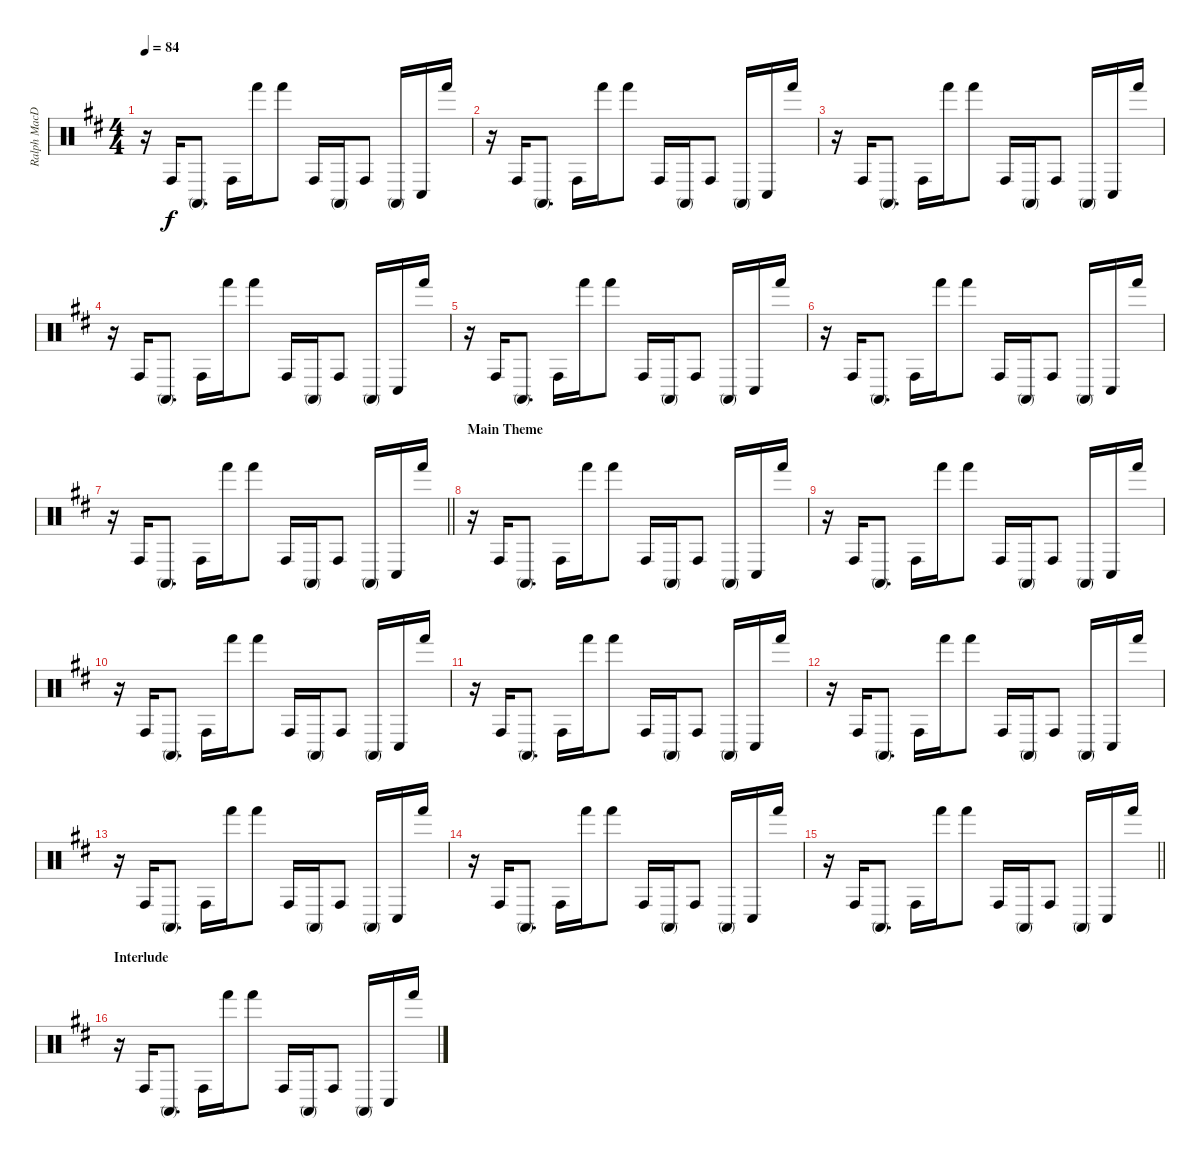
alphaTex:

\track ("Ralph MacDonald" "Ralph MacD") {instrument percussion}
\staff {score}
\articulation defaults
\ts (4 4)
\tempo 84
\clef neutral
\ks d
r.16{dy f} "Conga high (hit)".16 "Conga high (mute)".8{d} "Conga high (hit)".16 "Hand (hit)".16 "Hand (hit)".8 "Conga high (hit)".16 "Conga high (mute)".16 "Conga high (hit)".8 "Conga high (mute)".16 "Conga low (hit)".16 "Hand (hit)".16 |
r.16 "Conga high (hit)".16 "Conga high (mute)".8{d} "Conga high (hit)".16 "Hand (hit)".16 "Hand (hit)".8 "Conga high (hit)".16 "Conga high (mute)".16 "Conga high (hit)".8 "Conga high (mute)".16 "Conga low (hit)".16 "Hand (hit)".16 |
r.16 "Conga high (hit)".16 "Conga high (mute)".8{d} "Conga high (hit)".16 "Hand (hit)".16 "Hand (hit)".8 "Conga high (hit)".16 "Conga high (mute)".16 "Conga high (hit)".8 "Conga high (mute)".16 "Conga low (hit)".16 "Hand (hit)".16 |
r.16 "Conga high (hit)".16 "Conga high (mute)".8{d} "Conga high (hit)".16 "Hand (hit)".16 "Hand (hit)".8 "Conga high (hit)".16 "Conga high (mute)".16 "Conga high (hit)".8 "Conga high (mute)".16 "Conga low (hit)".16 "Hand (hit)".16 |
r.16 "Conga high (hit)".16 "Conga high (mute)".8{d} "Conga high (hit)".16 "Hand (hit)".16 "Hand (hit)".8 "Conga high (hit)".16 "Conga high (mute)".16 "Conga high (hit)".8 "Conga high (mute)".16 "Conga low (hit)".16 "Hand (hit)".16 |
r.16 "Conga high (hit)".16 "Conga high (mute)".8{d} "Conga high (hit)".16 "Hand (hit)".16 "Hand (hit)".8 "Conga high (hit)".16 "Conga high (mute)".16 "Conga high (hit)".8 "Conga high (mute)".16 "Conga low (hit)".16 "Hand (hit)".16 |
\barLineRight lightlight
r.16 "Conga high (hit)".16 "Conga high (mute)".8{d} "Conga high (hit)".16 "Hand (hit)".16 "Hand (hit)".8 "Conga high (hit)".16 "Conga high (mute)".16 "Conga high (hit)".8 "Conga high (mute)".16 "Conga low (hit)".16 "Hand (hit)".16 |
\section ("" "Main Theme")
r.16 "Conga high (hit)".16 "Conga high (mute)".8{d} "Conga high (hit)".16 "Hand (hit)".16 "Hand (hit)".8 "Conga high (hit)".16 "Conga high (mute)".16 "Conga high (hit)".8 "Conga high (mute)".16 "Conga low (hit)".16 "Hand (hit)".16 |
r.16 "Conga high (hit)".16 "Conga high (mute)".8{d} "Conga high (hit)".16 "Hand (hit)".16 "Hand (hit)".8 "Conga high (hit)".16 "Conga high (mute)".16 "Conga high (hit)".8 "Conga high (mute)".16 "Conga low (hit)".16 "Hand (hit)".16 |
r.16 "Conga high (hit)".16 "Conga high (mute)".8{d} "Conga high (hit)".16 "Hand (hit)".16 "Hand (hit)".8 "Conga high (hit)".16 "Conga high (mute)".16 "Conga high (hit)".8 "Conga high (mute)".16 "Conga low (hit)".16 "Hand (hit)".16 |
r.16 "Conga high (hit)".16 "Conga high (mute)".8{d} "Conga high (hit)".16 "Hand (hit)".16 "Hand (hit)".8 "Conga high (hit)".16 "Conga high (mute)".16 "Conga high (hit)".8 "Conga high (mute)".16 "Conga low (hit)".16 "Hand (hit)".16 |
r.16 "Conga high (hit)".16 "Conga high (mute)".8{d} "Conga high (hit)".16 "Hand (hit)".16 "Hand (hit)".8 "Conga high (hit)".16 "Conga high (mute)".16 "Conga high (hit)".8 "Conga high (mute)".16 "Conga low (hit)".16 "Hand (hit)".16 |
r.16 "Conga high (hit)".16 "Conga high (mute)".8{d} "Conga high (hit)".16 "Hand (hit)".16 "Hand (hit)".8 "Conga high (hit)".16 "Conga high (mute)".16 "Conga high (hit)".8 "Conga high (mute)".16 "Conga low (hit)".16 "Hand (hit)".16 |
r.16 "Conga high (hit)".16 "Conga high (mute)".8{d} "Conga high (hit)".16 "Hand (hit)".16 "Hand (hit)".8 "Conga high (hit)".16 "Conga high (mute)".16 "Conga high (hit)".8 "Conga high (mute)".16 "Conga low (hit)".16 "Hand (hit)".16 |
\barLineRight lightlight
r.16 "Conga high (hit)".16 "Conga high (mute)".8{d} "Conga high (hit)".16 "Hand (hit)".16 "Hand (hit)".8 "Conga high (hit)".16 "Conga high (mute)".16 "Conga high (hit)".8 "Conga high (mute)".16 "Conga low (hit)".16 "Hand (hit)".16 |
\section ("" "Interlude")
r.16 "Conga high (hit)".16 "Conga high (mute)".8{d} "Conga high (hit)".16 "Hand (hit)".16 "Hand (hit)".8 "Conga high (hit)".16 "Conga high (mute)".16 "Conga high (hit)".8 "Conga high (mute)".16 "Conga low (hit)".16 "Hand (hit)".16
